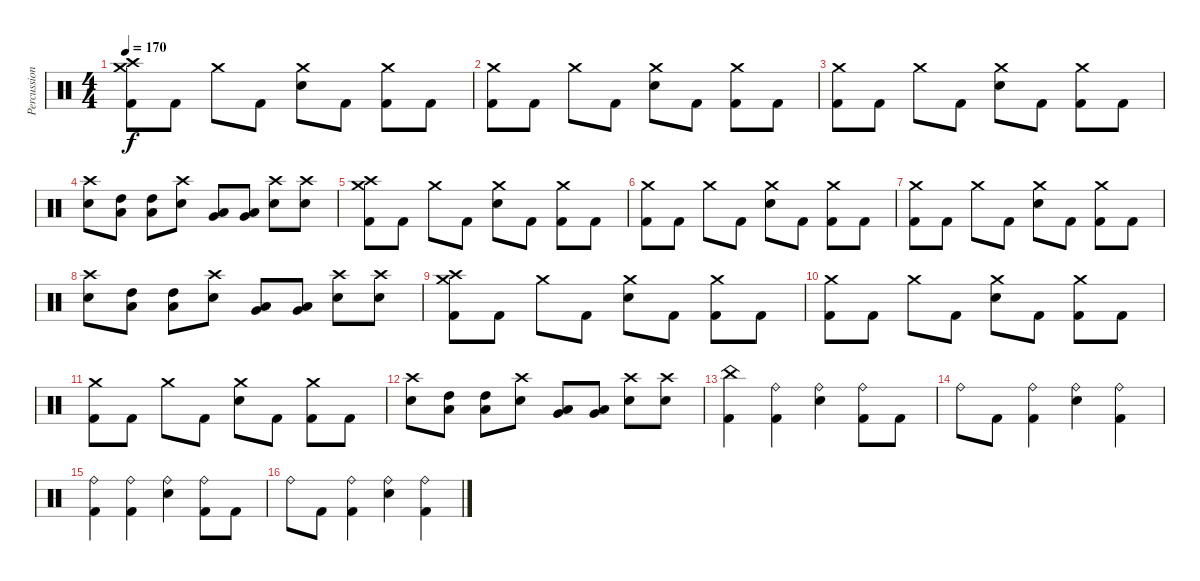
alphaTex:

\track ("Percussions" "Percussion") {instrument percussion}
\staff {score}
\articulation defaults
\ts (4 4)
\tempo 170
\clef neutral
\ks c
("Crash high (hit)" "Crash medium (hit)" "Kick (hit) 2").8{dy f} "Kick (hit) 2".8 "Crash medium (hit)".8 "Kick (hit) 2".8 ("Crash medium (hit)" "Electric Snare (hit)").8 "Kick (hit) 2".8 ("Crash medium (hit)" "Kick (hit) 2").8 "Kick (hit) 2".8 |
("Crash medium (hit)" "Kick (hit) 2").8 "Kick (hit) 2".8 "Crash medium (hit)".8 "Kick (hit) 2".8 ("Crash medium (hit)" "Electric Snare (hit)").8 "Kick (hit) 2".8 ("Crash medium (hit)" "Kick (hit) 2").8 "Kick (hit) 2".8 |
("Crash medium (hit)" "Kick (hit) 2").8 "Kick (hit) 2".8 "Crash medium (hit)".8 "Kick (hit) 2".8 ("Crash medium (hit)" "Electric Snare (hit)").8 "Kick (hit) 2".8 ("Crash medium (hit)" "Kick (hit) 2").8 "Kick (hit) 2".8 |
("Crash high (hit)" "Electric Snare (hit)").8 ("High Tom (hit)" "Low Tom (hit)").8 ("High Tom (hit)" "Low Tom (hit)").8 ("Crash high (hit)" "Electric Snare (hit)").8 ("Very Low Tom (hit)" "Low Tom (hit)").8 ("Very Low Tom (hit)" "Low Tom (hit)").8 ("Crash high (hit)" "Electric Snare (hit)").8 ("Crash high (hit)" "Electric Snare (hit)").8 |
("Crash high (hit)" "Crash medium (hit)" "Kick (hit) 2").8 "Kick (hit) 2".8 "Crash medium (hit)".8 "Kick (hit) 2".8 ("Crash medium (hit)" "Electric Snare (hit)").8 "Kick (hit) 2".8 ("Crash medium (hit)" "Kick (hit) 2").8 "Kick (hit) 2".8 |
("Crash medium (hit)" "Kick (hit) 2").8 "Kick (hit) 2".8 "Crash medium (hit)".8 "Kick (hit) 2".8 ("Crash medium (hit)" "Electric Snare (hit)").8 "Kick (hit) 2".8 ("Crash medium (hit)" "Kick (hit) 2").8 "Kick (hit) 2".8 |
("Crash medium (hit)" "Kick (hit) 2").8 "Kick (hit) 2".8 "Crash medium (hit)".8 "Kick (hit) 2".8 ("Crash medium (hit)" "Electric Snare (hit)").8 "Kick (hit) 2".8 ("Crash medium (hit)" "Kick (hit) 2").8 "Kick (hit) 2".8 |
("Crash high (hit)" "Electric Snare (hit)").8 ("High Tom (hit)" "Low Tom (hit)").8 ("High Tom (hit)" "Low Tom (hit)").8 ("Crash high (hit)" "Electric Snare (hit)").8 ("Very Low Tom (hit)" "Low Tom (hit)").8 ("Very Low Tom (hit)" "Low Tom (hit)").8 ("Crash high (hit)" "Electric Snare (hit)").8 ("Crash high (hit)" "Electric Snare (hit)").8 |
("Crash high (hit)" "Crash medium (hit)" "Kick (hit) 2").8 "Kick (hit) 2".8 "Crash medium (hit)".8 "Kick (hit) 2".8 ("Crash medium (hit)" "Electric Snare (hit)").8 "Kick (hit) 2".8 ("Crash medium (hit)" "Kick (hit) 2").8 "Kick (hit) 2".8 |
("Crash medium (hit)" "Kick (hit) 2").8 "Kick (hit) 2".8 "Crash medium (hit)".8 "Kick (hit) 2".8 ("Crash medium (hit)" "Electric Snare (hit)").8 "Kick (hit) 2".8 ("Crash medium (hit)" "Kick (hit) 2").8 "Kick (hit) 2".8 |
("Crash medium (hit)" "Kick (hit) 2").8 "Kick (hit) 2".8 "Crash medium (hit)".8 "Kick (hit) 2".8 ("Crash medium (hit)" "Electric Snare (hit)").8 "Kick (hit) 2".8 ("Crash medium (hit)" "Kick (hit) 2").8 "Kick (hit) 2".8 |
("Crash high (hit)" "Electric Snare (hit)").8 ("High Tom (hit)" "Low Tom (hit)").8 ("High Tom (hit)" "Low Tom (hit)").8 ("Crash high (hit)" "Electric Snare (hit)").8 ("Very Low Tom (hit)" "Low Tom (hit)").8 ("Very Low Tom (hit)" "Low Tom (hit)").8 ("Crash high (hit)" "Electric Snare (hit)").8 ("Crash high (hit)" "Electric Snare (hit)").8 |
("China (hit)" "Kick (hit) 2").4 ("Ride (bell)" "Kick (hit) 2").4 ("Ride (bell)" "Electric Snare (hit)").4 ("Ride (bell)" "Kick (hit) 2").8 "Kick (hit) 2".8 |
"Ride (bell)".8 "Kick (hit) 2".8 ("Ride (bell)" "Kick (hit) 2").4 ("Ride (bell)" "Electric Snare (hit)").4 ("Ride (bell)" "Kick (hit) 2").4 |
("Ride (bell)" "Kick (hit) 2").4 ("Ride (bell)" "Kick (hit) 2").4 ("Ride (bell)" "Electric Snare (hit)").4 ("Ride (bell)" "Kick (hit) 2").8 "Kick (hit) 2".8 |
"Ride (bell)".8 "Kick (hit) 2".8 ("Ride (bell)" "Kick (hit) 2").4 ("Ride (bell)" "Electric Snare (hit)").4 ("Ride (bell)" "Kick (hit) 2").4
